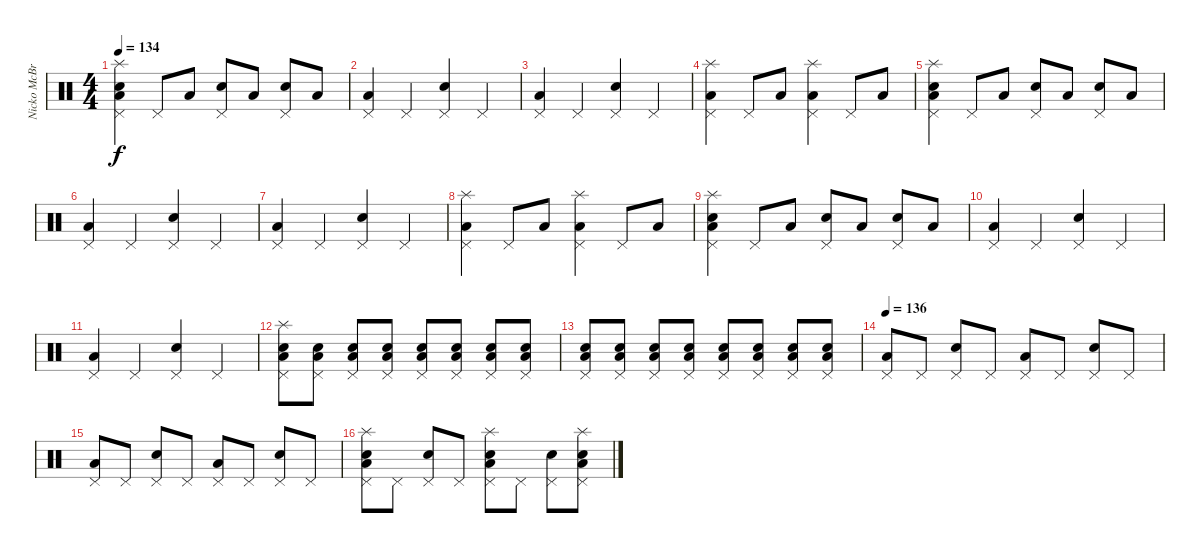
\track ("Nicko McBrian" "Nicko McBr") {instrument percussion}
\staff {score}
\articulation defaults
\ts (4 4)
\tempo 134
\clef neutral
\ks c
("Electric Snare (hit)" "Low Floor Tom (hit)" "Pedal Hi-Hat (hit)" "Splash (hit)").4{dy f} "Pedal Hi-Hat (hit)".8 "Low Floor Tom (hit)".8 ("Electric Snare (hit)" "Pedal Hi-Hat (hit)").8 "Low Floor Tom (hit)".8 ("Electric Snare (hit)" "Pedal Hi-Hat (hit)").8 "Low Floor Tom (hit)".8 |
("Low Floor Tom (hit)" "Pedal Hi-Hat (hit)").4 "Pedal Hi-Hat (hit)".4 ("Electric Snare (hit)" "Pedal Hi-Hat (hit)").4 "Pedal Hi-Hat (hit)".4 |
("Low Floor Tom (hit)" "Pedal Hi-Hat (hit)").4 "Pedal Hi-Hat (hit)".4 ("Electric Snare (hit)" "Pedal Hi-Hat (hit)").4 "Pedal Hi-Hat (hit)".4 |
("Low Floor Tom (hit)" "Pedal Hi-Hat (hit)" "Splash (hit)").4 "Pedal Hi-Hat (hit)".8 "Low Floor Tom (hit)".8 ("Low Floor Tom (hit)" "Pedal Hi-Hat (hit)" "Splash (hit)").4 "Pedal Hi-Hat (hit)".8 "Low Floor Tom (hit)".8 |
("Electric Snare (hit)" "Low Floor Tom (hit)" "Pedal Hi-Hat (hit)" "Splash (hit)").4 "Pedal Hi-Hat (hit)".8 "Low Floor Tom (hit)".8 ("Electric Snare (hit)" "Pedal Hi-Hat (hit)").8 "Low Floor Tom (hit)".8 ("Electric Snare (hit)" "Pedal Hi-Hat (hit)").8 "Low Floor Tom (hit)".8 |
("Low Floor Tom (hit)" "Pedal Hi-Hat (hit)").4 "Pedal Hi-Hat (hit)".4 ("Electric Snare (hit)" "Pedal Hi-Hat (hit)").4 "Pedal Hi-Hat (hit)".4 |
("Low Floor Tom (hit)" "Pedal Hi-Hat (hit)").4 "Pedal Hi-Hat (hit)".4 ("Electric Snare (hit)" "Pedal Hi-Hat (hit)").4 "Pedal Hi-Hat (hit)".4 |
("Low Floor Tom (hit)" "Pedal Hi-Hat (hit)" "Splash (hit)").4 "Pedal Hi-Hat (hit)".8 "Low Floor Tom (hit)".8 ("Low Floor Tom (hit)" "Pedal Hi-Hat (hit)" "Splash (hit)").4 "Pedal Hi-Hat (hit)".8 "Low Floor Tom (hit)".8 |
("Electric Snare (hit)" "Low Floor Tom (hit)" "Pedal Hi-Hat (hit)" "Splash (hit)").4 "Pedal Hi-Hat (hit)".8 "Low Floor Tom (hit)".8 ("Electric Snare (hit)" "Pedal Hi-Hat (hit)").8 "Low Floor Tom (hit)".8 ("Electric Snare (hit)" "Pedal Hi-Hat (hit)").8 "Low Floor Tom (hit)".8 |
("Low Floor Tom (hit)" "Pedal Hi-Hat (hit)").4 "Pedal Hi-Hat (hit)".4 ("Electric Snare (hit)" "Pedal Hi-Hat (hit)").4 "Pedal Hi-Hat (hit)".4 |
("Low Floor Tom (hit)" "Pedal Hi-Hat (hit)").4 "Pedal Hi-Hat (hit)".4 ("Electric Snare (hit)" "Pedal Hi-Hat (hit)").4 "Pedal Hi-Hat (hit)".4 |
("Electric Snare (hit)" "Low Floor Tom (hit)" "Pedal Hi-Hat (hit)" "Splash (hit)").8 ("Electric Snare (hit)" "Low Floor Tom (hit)" "Pedal Hi-Hat (hit)").8 ("Electric Snare (hit)" "Low Floor Tom (hit)" "Pedal Hi-Hat (hit)").8 ("Electric Snare (hit)" "Low Floor Tom (hit)" "Pedal Hi-Hat (hit)").8 ("Electric Snare (hit)" "Low Floor Tom (hit)" "Pedal Hi-Hat (hit)").8 ("Electric Snare (hit)" "Low Floor Tom (hit)" "Pedal Hi-Hat (hit)").8 ("Electric Snare (hit)" "Low Floor Tom (hit)" "Pedal Hi-Hat (hit)").8 ("Electric Snare (hit)" "Low Floor Tom (hit)" "Pedal Hi-Hat (hit)").8 |
("Electric Snare (hit)" "Low Floor Tom (hit)" "Pedal Hi-Hat (hit)").8 ("Electric Snare (hit)" "Low Floor Tom (hit)" "Pedal Hi-Hat (hit)").8 ("Electric Snare (hit)" "Low Floor Tom (hit)" "Pedal Hi-Hat (hit)").8 ("Electric Snare (hit)" "Low Floor Tom (hit)" "Pedal Hi-Hat (hit)").8 ("Electric Snare (hit)" "Low Floor Tom (hit)" "Pedal Hi-Hat (hit)").8 ("Electric Snare (hit)" "Low Floor Tom (hit)" "Pedal Hi-Hat (hit)").8 ("Electric Snare (hit)" "Low Floor Tom (hit)" "Pedal Hi-Hat (hit)").8 ("Electric Snare (hit)" "Low Floor Tom (hit)" "Pedal Hi-Hat (hit)").8 |
\tempo 136
("Low Floor Tom (hit)" "Pedal Hi-Hat (hit)").8 "Pedal Hi-Hat (hit)".8 ("Electric Snare (hit)" "Pedal Hi-Hat (hit)").8 "Pedal Hi-Hat (hit)".8 ("Low Floor Tom (hit)" "Pedal Hi-Hat (hit)").8 "Pedal Hi-Hat (hit)".8 ("Electric Snare (hit)" "Pedal Hi-Hat (hit)").8 "Pedal Hi-Hat (hit)".8 |
("Low Floor Tom (hit)" "Pedal Hi-Hat (hit)").8 "Pedal Hi-Hat (hit)".8 ("Electric Snare (hit)" "Pedal Hi-Hat (hit)").8 "Pedal Hi-Hat (hit)".8 ("Low Floor Tom (hit)" "Pedal Hi-Hat (hit)").8 "Pedal Hi-Hat (hit)".8 ("Electric Snare (hit)" "Pedal Hi-Hat (hit)").8 "Pedal Hi-Hat (hit)".8 |
("Electric Snare (hit)" "Low Floor Tom (hit)" "Pedal Hi-Hat (hit)" "Splash (hit)").8 "Pedal Hi-Hat (hit)".8 ("Electric Snare (hit)" "Pedal Hi-Hat (hit)").8 "Pedal Hi-Hat (hit)".8 ("Electric Snare (hit)" "Low Floor Tom (hit)" "Pedal Hi-Hat (hit)" "Splash (hit)").8 "Pedal Hi-Hat (hit)".8 ("Electric Snare (hit)" "Pedal Hi-Hat (hit)").8 ("Electric Snare (hit)" "Low Floor Tom (hit)" "Pedal Hi-Hat (hit)" "Splash (hit)").8
